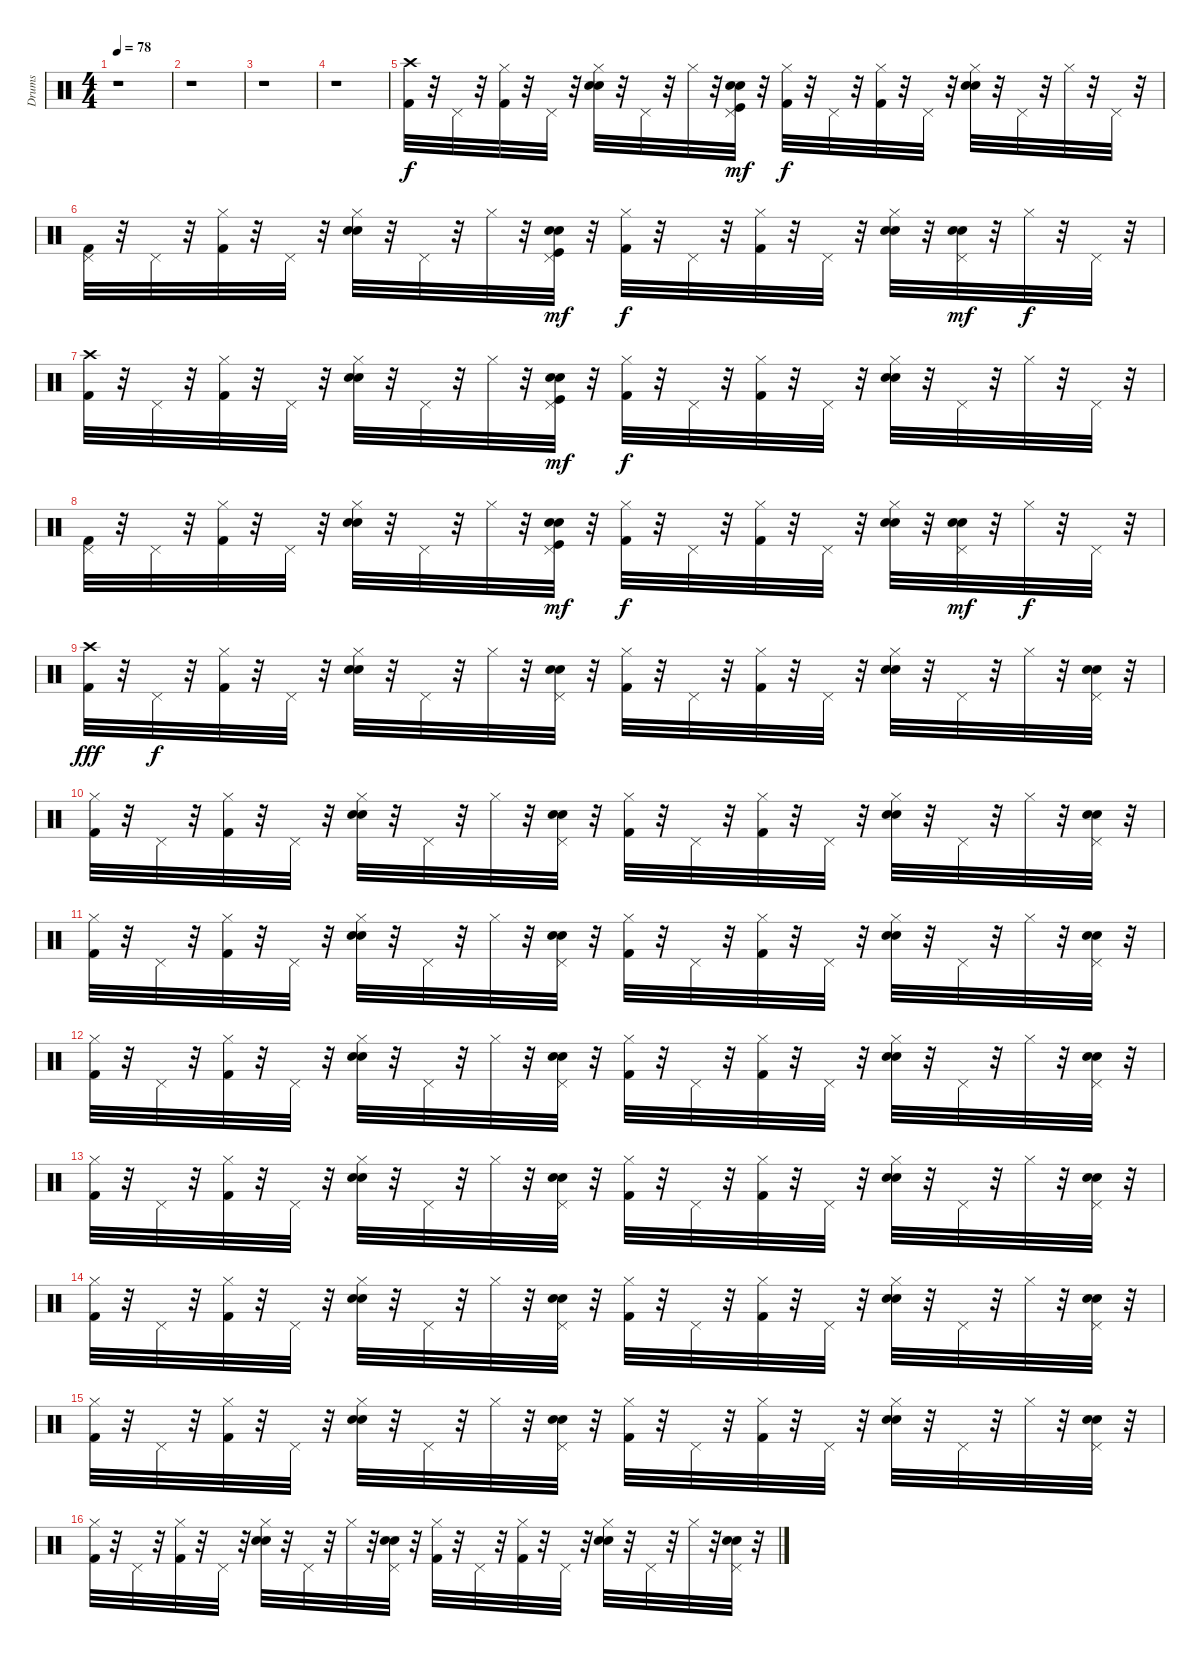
\track ("Drums" "Drums") {instrument percussion}
\staff {score}
\articulation defaults
\ts (4 4)
\tempo 78
\clef neutral
\ks c
r.1{dy f} |
r.1 |
r.1 |
r.1 |
("Crash high (hit)" "Kick (hit) 2").32 r.32 "Pedal Hi-Hat (hit)".32 r.32 ("Hi-Hat (closed)" "Kick (hit) 2").32 r.32 "Pedal Hi-Hat (hit)".32 r.32 ("Hi-Hat (closed)" "Hand Clap (hit)" "Electric Snare (hit)").32 r.32 "Pedal Hi-Hat (hit)".32 r.32 "Hi-Hat (closed)".32 r.32 ("Hand Clap (hit)" "Electric Snare (hit)" "Pedal Hi-Hat (hit)" "Kick (hit)").32{dy mf} r.32 ("Hi-Hat (closed)" "Kick (hit) 2").32{dy f} r.32 "Pedal Hi-Hat (hit)".32 r.32 ("Hi-Hat (closed)" "Kick (hit) 2").32 r.32 "Pedal Hi-Hat (hit)".32 r.32 ("Hi-Hat (closed)" "Hand Clap (hit)" "Electric Snare (hit)").32 r.32 "Pedal Hi-Hat (hit)".32 r.32 "Hi-Hat (closed)".32 r.32 "Pedal Hi-Hat (hit)".32 r.32 |
("Pedal Hi-Hat (hit)" "Kick (hit) 2").32 r.32 "Pedal Hi-Hat (hit)".32 r.32 ("Hi-Hat (closed)" "Kick (hit) 2").32 r.32 "Pedal Hi-Hat (hit)".32 r.32 ("Hi-Hat (closed)" "Hand Clap (hit)" "Electric Snare (hit)").32 r.32 "Pedal Hi-Hat (hit)".32 r.32 "Hi-Hat (closed)".32 r.32 ("Hand Clap (hit)" "Electric Snare (hit)" "Pedal Hi-Hat (hit)" "Kick (hit)").32{dy mf} r.32 ("Hi-Hat (closed)" "Kick (hit) 2").32{dy f} r.32 "Pedal Hi-Hat (hit)".32 r.32 ("Hi-Hat (closed)" "Kick (hit) 2").32 r.32 "Pedal Hi-Hat (hit)".32 r.32 ("Hi-Hat (closed)" "Hand Clap (hit)" "Electric Snare (hit)").32 r.32 ("Hand Clap (hit)" "Electric Snare (hit)" "Pedal Hi-Hat (hit)").32{dy mf} r.32 "Hi-Hat (closed)".32{dy f} r.32 "Pedal Hi-Hat (hit)".32 r.32 |
("Crash high (hit)" "Kick (hit) 2").32 r.32 "Pedal Hi-Hat (hit)".32 r.32 ("Hi-Hat (closed)" "Kick (hit) 2").32 r.32 "Pedal Hi-Hat (hit)".32 r.32 ("Hi-Hat (closed)" "Hand Clap (hit)" "Electric Snare (hit)").32 r.32 "Pedal Hi-Hat (hit)".32 r.32 "Hi-Hat (closed)".32 r.32 ("Hand Clap (hit)" "Electric Snare (hit)" "Pedal Hi-Hat (hit)" "Kick (hit)").32{dy mf} r.32 ("Hi-Hat (closed)" "Kick (hit) 2").32{dy f} r.32 "Pedal Hi-Hat (hit)".32 r.32 ("Hi-Hat (closed)" "Kick (hit) 2").32 r.32 "Pedal Hi-Hat (hit)".32 r.32 ("Hi-Hat (closed)" "Hand Clap (hit)" "Electric Snare (hit)").32 r.32 "Pedal Hi-Hat (hit)".32 r.32 "Hi-Hat (closed)".32 r.32 "Pedal Hi-Hat (hit)".32 r.32 |
("Pedal Hi-Hat (hit)" "Kick (hit) 2").32 r.32 "Pedal Hi-Hat (hit)".32 r.32 ("Hi-Hat (closed)" "Kick (hit) 2").32 r.32 "Pedal Hi-Hat (hit)".32 r.32 ("Hi-Hat (closed)" "Hand Clap (hit)" "Electric Snare (hit)").32 r.32 "Pedal Hi-Hat (hit)".32 r.32 "Hi-Hat (closed)".32 r.32 ("Hand Clap (hit)" "Electric Snare (hit)" "Pedal Hi-Hat (hit)" "Kick (hit)").32{dy mf} r.32 ("Hi-Hat (closed)" "Kick (hit) 2").32{dy f} r.32 "Pedal Hi-Hat (hit)".32 r.32 ("Hi-Hat (closed)" "Kick (hit) 2").32 r.32 "Pedal Hi-Hat (hit)".32 r.32 ("Hi-Hat (closed)" "Hand Clap (hit)" "Electric Snare (hit)").32 r.32 ("Hand Clap (hit)" "Electric Snare (hit)" "Pedal Hi-Hat (hit)").32{dy mf} r.32 "Hi-Hat (closed)".32{dy f} r.32 "Pedal Hi-Hat (hit)".32 r.32 |
("Kick (hit) 2" "Crash high (hit)").32{dy fff} r.32 "Pedal Hi-Hat (hit)".32{dy f} r.32 ("Kick (hit) 2" "Hi-Hat (closed)").32 r.32 "Pedal Hi-Hat (hit)".32 r.32 ("Snare (hit) 2" "Electric Snare (hit)" "Hi-Hat (closed)").32 r.32 "Pedal Hi-Hat (hit)".32 r.32 "Hi-Hat (closed)".32 r.32 ("Snare (hit) 2" "Electric Snare (hit)" "Pedal Hi-Hat (hit)").32 r.32 ("Kick (hit) 2" "Hi-Hat (closed)").32 r.32 "Pedal Hi-Hat (hit)".32 r.32 ("Kick (hit) 2" "Hi-Hat (closed)").32 r.32 "Pedal Hi-Hat (hit)".32 r.32 ("Electric Snare (hit)" "Snare (hit) 2" "Hi-Hat (closed)").32 r.32 "Pedal Hi-Hat (hit)".32 r.32 "Hi-Hat (closed)".32 r.32 ("Pedal Hi-Hat (hit)" "Snare (hit) 2" "Electric Snare (hit)").32 r.32 |
("Hi-Hat (closed)" "Kick (hit) 2").32 r.32 "Pedal Hi-Hat (hit)".32 r.32 ("Kick (hit) 2" "Hi-Hat (closed)").32 r.32 "Pedal Hi-Hat (hit)".32 r.32 ("Snare (hit) 2" "Electric Snare (hit)" "Hi-Hat (closed)").32 r.32 "Pedal Hi-Hat (hit)".32 r.32 "Hi-Hat (closed)".32 r.32 ("Snare (hit) 2" "Electric Snare (hit)" "Pedal Hi-Hat (hit)").32 r.32 ("Kick (hit) 2" "Hi-Hat (closed)").32 r.32 "Pedal Hi-Hat (hit)".32 r.32 ("Kick (hit) 2" "Hi-Hat (closed)").32 r.32 "Pedal Hi-Hat (hit)".32 r.32 ("Electric Snare (hit)" "Snare (hit) 2" "Hi-Hat (closed)").32 r.32 "Pedal Hi-Hat (hit)".32 r.32 "Hi-Hat (closed)".32 r.32 ("Pedal Hi-Hat (hit)" "Snare (hit) 2" "Electric Snare (hit)").32 r.32 |
("Hi-Hat (closed)" "Kick (hit) 2").32 r.32 "Pedal Hi-Hat (hit)".32 r.32 ("Kick (hit) 2" "Hi-Hat (closed)").32 r.32 "Pedal Hi-Hat (hit)".32 r.32 ("Snare (hit) 2" "Electric Snare (hit)" "Hi-Hat (closed)").32 r.32 "Pedal Hi-Hat (hit)".32 r.32 "Hi-Hat (closed)".32 r.32 ("Snare (hit) 2" "Electric Snare (hit)" "Pedal Hi-Hat (hit)").32 r.32 ("Kick (hit) 2" "Hi-Hat (closed)").32 r.32 "Pedal Hi-Hat (hit)".32 r.32 ("Kick (hit) 2" "Hi-Hat (closed)").32 r.32 "Pedal Hi-Hat (hit)".32 r.32 ("Electric Snare (hit)" "Snare (hit) 2" "Hi-Hat (closed)").32 r.32 "Pedal Hi-Hat (hit)".32 r.32 "Hi-Hat (closed)".32 r.32 ("Pedal Hi-Hat (hit)" "Snare (hit) 2" "Electric Snare (hit)").32 r.32 |
("Hi-Hat (closed)" "Kick (hit) 2").32 r.32 "Pedal Hi-Hat (hit)".32 r.32 ("Kick (hit) 2" "Hi-Hat (closed)").32 r.32 "Pedal Hi-Hat (hit)".32 r.32 ("Snare (hit) 2" "Electric Snare (hit)" "Hi-Hat (closed)").32 r.32 "Pedal Hi-Hat (hit)".32 r.32 "Hi-Hat (closed)".32 r.32 ("Snare (hit) 2" "Electric Snare (hit)" "Pedal Hi-Hat (hit)").32 r.32 ("Kick (hit) 2" "Hi-Hat (closed)").32 r.32 "Pedal Hi-Hat (hit)".32 r.32 ("Kick (hit) 2" "Hi-Hat (closed)").32 r.32 "Pedal Hi-Hat (hit)".32 r.32 ("Electric Snare (hit)" "Snare (hit) 2" "Hi-Hat (closed)").32 r.32 "Pedal Hi-Hat (hit)".32 r.32 "Hi-Hat (closed)".32 r.32 ("Pedal Hi-Hat (hit)" "Snare (hit) 2" "Electric Snare (hit)").32 r.32 |
("Hi-Hat (closed)" "Kick (hit) 2").32 r.32 "Pedal Hi-Hat (hit)".32 r.32 ("Kick (hit) 2" "Hi-Hat (closed)").32 r.32 "Pedal Hi-Hat (hit)".32 r.32 ("Snare (hit) 2" "Electric Snare (hit)" "Hi-Hat (closed)").32 r.32 "Pedal Hi-Hat (hit)".32 r.32 "Hi-Hat (closed)".32 r.32 ("Snare (hit) 2" "Electric Snare (hit)" "Pedal Hi-Hat (hit)").32 r.32 ("Kick (hit) 2" "Hi-Hat (closed)").32 r.32 "Pedal Hi-Hat (hit)".32 r.32 ("Kick (hit) 2" "Hi-Hat (closed)").32 r.32 "Pedal Hi-Hat (hit)".32 r.32 ("Electric Snare (hit)" "Snare (hit) 2" "Hi-Hat (closed)").32 r.32 "Pedal Hi-Hat (hit)".32 r.32 "Hi-Hat (closed)".32 r.32 ("Pedal Hi-Hat (hit)" "Snare (hit) 2" "Electric Snare (hit)").32 r.32 |
("Hi-Hat (closed)" "Kick (hit) 2").32 r.32 "Pedal Hi-Hat (hit)".32 r.32 ("Kick (hit) 2" "Hi-Hat (closed)").32 r.32 "Pedal Hi-Hat (hit)".32 r.32 ("Snare (hit) 2" "Electric Snare (hit)" "Hi-Hat (closed)").32 r.32 "Pedal Hi-Hat (hit)".32 r.32 "Hi-Hat (closed)".32 r.32 ("Snare (hit) 2" "Electric Snare (hit)" "Pedal Hi-Hat (hit)").32 r.32 ("Kick (hit) 2" "Hi-Hat (closed)").32 r.32 "Pedal Hi-Hat (hit)".32 r.32 ("Kick (hit) 2" "Hi-Hat (closed)").32 r.32 "Pedal Hi-Hat (hit)".32 r.32 ("Electric Snare (hit)" "Snare (hit) 2" "Hi-Hat (closed)").32 r.32 "Pedal Hi-Hat (hit)".32 r.32 "Hi-Hat (closed)".32 r.32 ("Pedal Hi-Hat (hit)" "Snare (hit) 2" "Electric Snare (hit)").32 r.32 |
("Hi-Hat (closed)" "Kick (hit) 2").32 r.32 "Pedal Hi-Hat (hit)".32 r.32 ("Kick (hit) 2" "Hi-Hat (closed)").32 r.32 "Pedal Hi-Hat (hit)".32 r.32 ("Snare (hit) 2" "Electric Snare (hit)" "Hi-Hat (closed)").32 r.32 "Pedal Hi-Hat (hit)".32 r.32 "Hi-Hat (closed)".32 r.32 ("Snare (hit) 2" "Electric Snare (hit)" "Pedal Hi-Hat (hit)").32 r.32 ("Kick (hit) 2" "Hi-Hat (closed)").32 r.32 "Pedal Hi-Hat (hit)".32 r.32 ("Kick (hit) 2" "Hi-Hat (closed)").32 r.32 "Pedal Hi-Hat (hit)".32 r.32 ("Electric Snare (hit)" "Snare (hit) 2" "Hi-Hat (closed)").32 r.32 "Pedal Hi-Hat (hit)".32 r.32 "Hi-Hat (closed)".32 r.32 ("Pedal Hi-Hat (hit)" "Snare (hit) 2" "Electric Snare (hit)").32 r.32 |
("Hi-Hat (closed)" "Kick (hit) 2").32 r.32 "Pedal Hi-Hat (hit)".32 r.32 ("Kick (hit) 2" "Hi-Hat (closed)").32 r.32 "Pedal Hi-Hat (hit)".32 r.32 ("Snare (hit) 2" "Electric Snare (hit)" "Hi-Hat (closed)").32 r.32 "Pedal Hi-Hat (hit)".32 r.32 "Hi-Hat (closed)".32 r.32 ("Snare (hit) 2" "Electric Snare (hit)" "Pedal Hi-Hat (hit)").32 r.32 ("Kick (hit) 2" "Hi-Hat (closed)").32 r.32 "Pedal Hi-Hat (hit)".32 r.32 ("Kick (hit) 2" "Hi-Hat (closed)").32 r.32 "Pedal Hi-Hat (hit)".32 r.32 ("Electric Snare (hit)" "Snare (hit) 2" "Hi-Hat (closed)").32 r.32 "Pedal Hi-Hat (hit)".32 r.32 "Hi-Hat (closed)".32 r.32 ("Pedal Hi-Hat (hit)" "Snare (hit) 2" "Electric Snare (hit)").32 r.32
